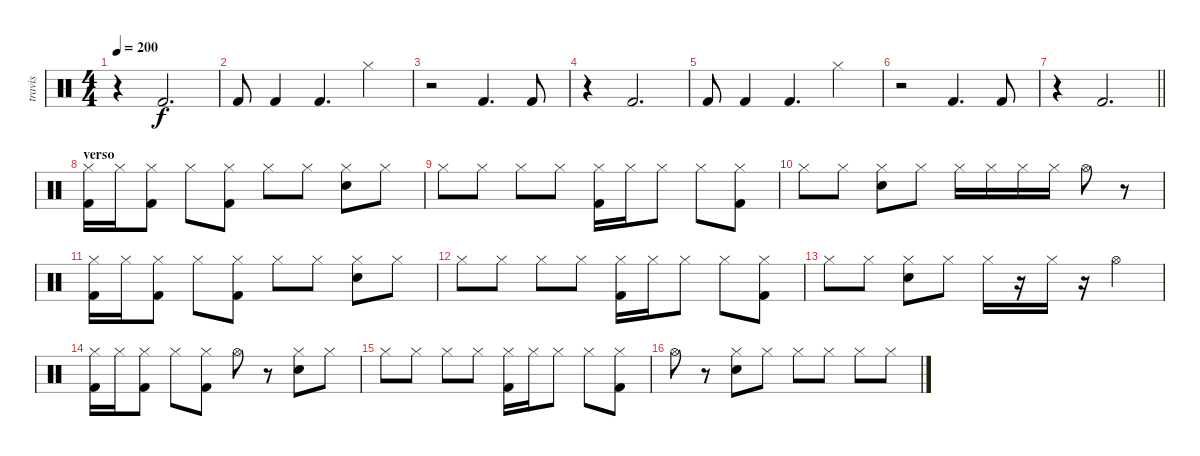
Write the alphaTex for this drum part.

\track ("travis" "travis") {instrument percussion}
\staff {score}
\articulation defaults
\ts (4 4)
\tempo 200
\clef neutral
\ks c
r.4{dy f} "Kick (hit) 2".2{d} |
"Kick (hit) 2".8 "Kick (hit) 2".4 "Kick (hit) 2".4{d} "Hi-Hat (closed)".4 |
r.2 "Kick (hit) 2".4{d} "Kick (hit) 2".8 |
r.4 "Kick (hit) 2".2{d} |
"Kick (hit) 2".8 "Kick (hit) 2".4 "Kick (hit) 2".4{d} "Hi-Hat (closed)".4 |
r.2 "Kick (hit) 2".4{d} "Kick (hit) 2".8 |
\barLineRight lightlight
r.4 "Kick (hit) 2".2{d} |
\section ("" "verso")
("Hi-Hat (closed)" "Kick (hit) 2").16 "Hi-Hat (closed)".16 ("Hi-Hat (closed)" "Kick (hit) 2").8 "Hi-Hat (closed)".8 ("Hi-Hat (closed)" "Kick (hit) 2").8 "Hi-Hat (closed)".8 "Hi-Hat (closed)".8 ("Hi-Hat (closed)" "Electric Snare (hit)").8 "Hi-Hat (closed)".8 |
"Hi-Hat (closed)".8 "Hi-Hat (closed)".8 "Hi-Hat (closed)".8 "Hi-Hat (closed)".8 ("Hi-Hat (closed)" "Kick (hit) 2").16 "Hi-Hat (closed)".16 "Hi-Hat (closed)".8 "Hi-Hat (closed)".8 ("Hi-Hat (closed)" "Kick (hit) 2").8 |
"Hi-Hat (closed)".8 "Hi-Hat (closed)".8 ("Hi-Hat (closed)" "Electric Snare (hit)").8 "Hi-Hat (closed)".8 "Hi-Hat (closed)".16 "Hi-Hat (closed)".16 "Hi-Hat (closed)".16 "Hi-Hat (closed)".16 "Hi-Hat (open)".8 r.8 |
("Hi-Hat (closed)" "Kick (hit) 2").16 "Hi-Hat (closed)".16 ("Hi-Hat (closed)" "Kick (hit) 2").8 "Hi-Hat (closed)".8 ("Hi-Hat (closed)" "Kick (hit) 2").8 "Hi-Hat (closed)".8 "Hi-Hat (closed)".8 ("Hi-Hat (closed)" "Electric Snare (hit)").8 "Hi-Hat (closed)".8 |
"Hi-Hat (closed)".8 "Hi-Hat (closed)".8 "Hi-Hat (closed)".8 "Hi-Hat (closed)".8 ("Hi-Hat (closed)" "Kick (hit) 2").16 "Hi-Hat (closed)".16 "Hi-Hat (closed)".8 "Hi-Hat (closed)".8 ("Hi-Hat (closed)" "Kick (hit) 2").8 |
"Hi-Hat (closed)".8 "Hi-Hat (closed)".8 ("Hi-Hat (closed)" "Electric Snare (hit)").8 "Hi-Hat (closed)".8 "Hi-Hat (closed)".16 r.16 "Hi-Hat (closed)".16 r.16 "Hi-Hat (open)".4 |
("Hi-Hat (closed)" "Kick (hit) 2").16 "Hi-Hat (closed)".16 ("Hi-Hat (closed)" "Kick (hit) 2").8 "Hi-Hat (closed)".8 ("Hi-Hat (closed)" "Kick (hit) 2").8 "Hi-Hat (open)".8 r.8 ("Hi-Hat (closed)" "Electric Snare (hit)").8 "Hi-Hat (closed)".8 |
"Hi-Hat (closed)".8 "Hi-Hat (closed)".8 "Hi-Hat (closed)".8 "Hi-Hat (closed)".8 ("Hi-Hat (closed)" "Kick (hit) 2").16 "Hi-Hat (closed)".16 "Hi-Hat (closed)".8 "Hi-Hat (closed)".8 ("Hi-Hat (closed)" "Kick (hit) 2").8 |
"Hi-Hat (open)".8 r.8 ("Hi-Hat (closed)" "Electric Snare (hit)").8 "Hi-Hat (closed)".8 "Hi-Hat (closed)".8 "Hi-Hat (closed)".8 "Hi-Hat (closed)".8 "Hi-Hat (closed)".8
